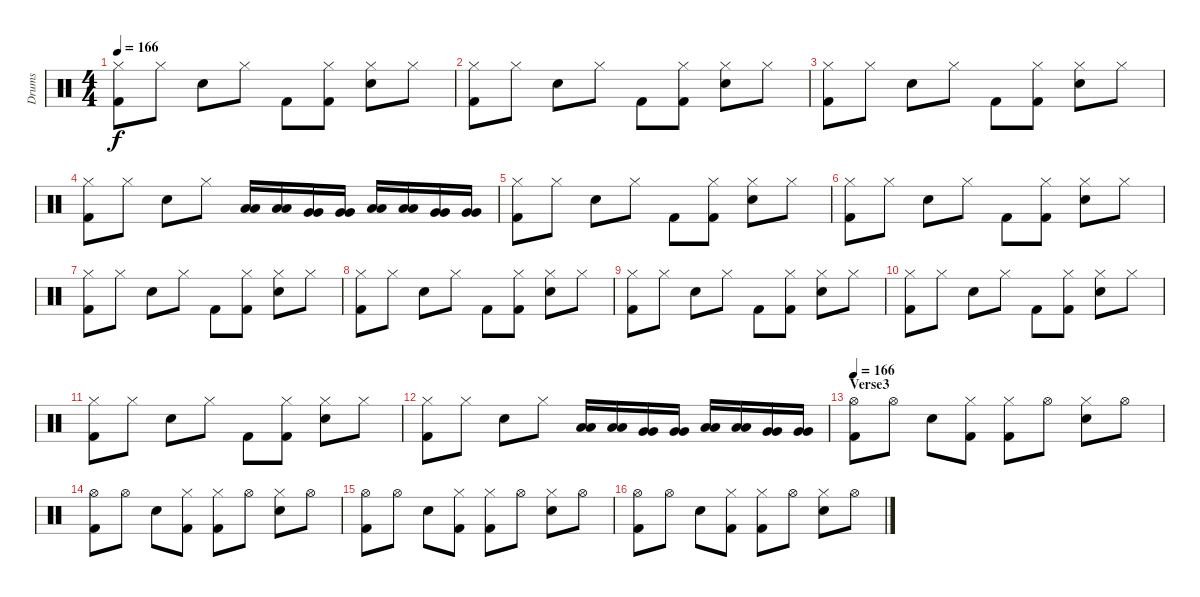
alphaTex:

\track ("Drums" "Drums") {instrument percussion}
\staff {score}
\articulation defaults
\ts (4 4)
\tempo 166
\clef neutral
\ks c
("Hi-Hat (closed)" "Kick (hit) 2").8{dy f} "Hi-Hat (closed)".8 "Electric Snare (hit)".8 "Hi-Hat (closed)".8 "Kick (hit) 2".8 ("Hi-Hat (closed)" "Kick (hit) 2").8 ("Electric Snare (hit)" "Hi-Hat (closed)").8 "Hi-Hat (closed)".8 |
("Hi-Hat (closed)" "Kick (hit) 2").8 "Hi-Hat (closed)".8 "Electric Snare (hit)".8 "Hi-Hat (closed)".8 "Kick (hit) 2".8 ("Hi-Hat (closed)" "Kick (hit) 2").8 ("Electric Snare (hit)" "Hi-Hat (closed)").8 "Hi-Hat (closed)".8 |
("Hi-Hat (closed)" "Kick (hit) 2").8 "Hi-Hat (closed)".8 "Electric Snare (hit)".8 "Hi-Hat (closed)".8 "Kick (hit) 2".8 ("Hi-Hat (closed)" "Kick (hit) 2").8 ("Electric Snare (hit)" "Hi-Hat (closed)").8 "Hi-Hat (closed)".8 |
("Hi-Hat (closed)" "Kick (hit) 2").8 "Hi-Hat (closed)".8 "Electric Snare (hit)".8 "Hi-Hat (closed)".8 ("Low Tom (hit)" "Low Tom (hit)").16 ("Low Tom (hit)" "Low Tom (hit)").16 ("Very Low Tom (hit)" "Very Low Tom (hit)").16 ("Very Low Tom (hit)" "Very Low Tom (hit)").16 ("Low Floor Tom (hit)" "Low Floor Tom (hit)").16 ("Low Floor Tom (hit)" "Low Floor Tom (hit)").16 ("Very Low Tom (hit)" "Very Low Tom (hit)").16 ("Very Low Tom (hit)" "Very Low Tom (hit)").16 |
("Hi-Hat (closed)" "Kick (hit) 2").8 "Hi-Hat (closed)".8 "Electric Snare (hit)".8 "Hi-Hat (closed)".8 "Kick (hit) 2".8 ("Hi-Hat (closed)" "Kick (hit) 2").8 ("Electric Snare (hit)" "Hi-Hat (closed)").8 "Hi-Hat (closed)".8 |
("Hi-Hat (closed)" "Kick (hit) 2").8 "Hi-Hat (closed)".8 "Electric Snare (hit)".8 "Hi-Hat (closed)".8 "Kick (hit) 2".8 ("Hi-Hat (closed)" "Kick (hit) 2").8 ("Electric Snare (hit)" "Hi-Hat (closed)").8 "Hi-Hat (closed)".8 |
("Hi-Hat (closed)" "Kick (hit) 2").8 "Hi-Hat (closed)".8 "Electric Snare (hit)".8 "Hi-Hat (closed)".8 "Kick (hit) 2".8 ("Hi-Hat (closed)" "Kick (hit) 2").8 ("Electric Snare (hit)" "Hi-Hat (closed)").8 "Hi-Hat (closed)".8 |
("Hi-Hat (closed)" "Kick (hit) 2").8 "Hi-Hat (closed)".8 "Electric Snare (hit)".8 "Hi-Hat (closed)".8 "Kick (hit) 2".8 ("Hi-Hat (closed)" "Kick (hit) 2").8 ("Electric Snare (hit)" "Hi-Hat (closed)").8 "Hi-Hat (closed)".8 |
("Hi-Hat (closed)" "Kick (hit) 2").8 "Hi-Hat (closed)".8 "Electric Snare (hit)".8 "Hi-Hat (closed)".8 "Kick (hit) 2".8 ("Hi-Hat (closed)" "Kick (hit) 2").8 ("Electric Snare (hit)" "Hi-Hat (closed)").8 "Hi-Hat (closed)".8 |
("Hi-Hat (closed)" "Kick (hit) 2").8 "Hi-Hat (closed)".8 "Electric Snare (hit)".8 "Hi-Hat (closed)".8 "Kick (hit) 2".8 ("Hi-Hat (closed)" "Kick (hit) 2").8 ("Electric Snare (hit)" "Hi-Hat (closed)").8 "Hi-Hat (closed)".8 |
("Hi-Hat (closed)" "Kick (hit) 2").8 "Hi-Hat (closed)".8 "Electric Snare (hit)".8 "Hi-Hat (closed)".8 "Kick (hit) 2".8 ("Hi-Hat (closed)" "Kick (hit) 2").8 ("Electric Snare (hit)" "Hi-Hat (closed)").8 "Hi-Hat (closed)".8 |
("Hi-Hat (closed)" "Kick (hit) 2").8 "Hi-Hat (closed)".8 "Electric Snare (hit)".8 "Hi-Hat (closed)".8 ("Low Tom (hit)" "Low Tom (hit)").16 ("Low Tom (hit)" "Low Tom (hit)").16 ("Very Low Tom (hit)" "Very Low Tom (hit)").16 ("Very Low Tom (hit)" "Very Low Tom (hit)").16 ("Low Floor Tom (hit)" "Low Floor Tom (hit)").16 ("Low Floor Tom (hit)" "Low Floor Tom (hit)").16 ("Very Low Tom (hit)" "Very Low Tom (hit)").16 ("Very Low Tom (hit)" "Very Low Tom (hit)").16 |
\section ("" "Verse3")
\tempo 166
("Hi-Hat (open)" "Kick (hit) 2").8 "Hi-Hat (open)".8 "Electric Snare (hit)".8 ("Hi-Hat (closed)" "Kick (hit) 2").8 ("Hi-Hat (closed)" "Kick (hit) 2").8 "Hi-Hat (open)".8 ("Hi-Hat (closed)" "Electric Snare (hit)").8 "Hi-Hat (open)".8 |
("Hi-Hat (open)" "Kick (hit) 2").8 "Hi-Hat (open)".8 "Electric Snare (hit)".8 ("Hi-Hat (closed)" "Kick (hit) 2").8 ("Hi-Hat (closed)" "Kick (hit) 2").8 "Hi-Hat (open)".8 ("Hi-Hat (closed)" "Electric Snare (hit)").8 "Hi-Hat (open)".8 |
("Hi-Hat (open)" "Kick (hit) 2").8 "Hi-Hat (open)".8 "Electric Snare (hit)".8 ("Hi-Hat (closed)" "Kick (hit) 2").8 ("Hi-Hat (closed)" "Kick (hit) 2").8 "Hi-Hat (open)".8 ("Hi-Hat (closed)" "Electric Snare (hit)").8 "Hi-Hat (open)".8 |
("Hi-Hat (open)" "Kick (hit) 2").8 "Hi-Hat (open)".8 "Electric Snare (hit)".8 ("Hi-Hat (closed)" "Kick (hit) 2").8 ("Hi-Hat (closed)" "Kick (hit) 2").8 "Hi-Hat (open)".8 ("Hi-Hat (closed)" "Electric Snare (hit)").8 "Hi-Hat (open)".8
